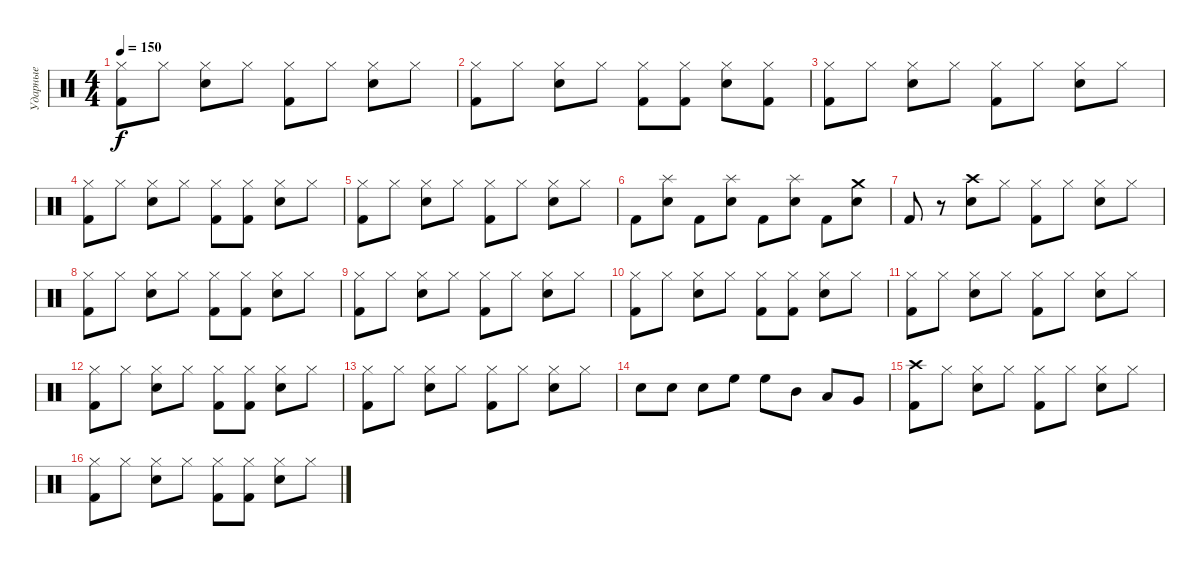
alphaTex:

\track ("Ударные" "Ударные") {instrument percussion}
\staff {score}
\articulation defaults
\ts (4 4)
\tempo 150
\clef neutral
\ks c
("Hi-Hat (closed)" "Kick (hit) 2").8{dy f} "Hi-Hat (closed)".8 ("Hi-Hat (closed)" "Snare (hit) 2").8 "Hi-Hat (closed)".8 ("Hi-Hat (closed)" "Kick (hit) 2").8 "Hi-Hat (closed)".8 ("Hi-Hat (closed)" "Snare (hit) 2").8 "Hi-Hat (closed)".8 |
("Hi-Hat (closed)" "Kick (hit) 2").8 "Hi-Hat (closed)".8 ("Hi-Hat (closed)" "Snare (hit) 2").8 "Hi-Hat (closed)".8 ("Hi-Hat (closed)" "Kick (hit) 2").8 ("Hi-Hat (closed)" "Kick (hit) 2").8 ("Hi-Hat (closed)" "Snare (hit) 2").8 ("Hi-Hat (closed)" "Kick (hit) 2").8 |
("Hi-Hat (closed)" "Kick (hit) 2").8 "Hi-Hat (closed)".8 ("Hi-Hat (closed)" "Snare (hit) 2").8 "Hi-Hat (closed)".8 ("Hi-Hat (closed)" "Kick (hit) 2").8 "Hi-Hat (closed)".8 ("Hi-Hat (closed)" "Snare (hit) 2").8 "Hi-Hat (closed)".8 |
("Hi-Hat (closed)" "Kick (hit) 2").8 "Hi-Hat (closed)".8 ("Hi-Hat (closed)" "Snare (hit) 2").8 "Hi-Hat (closed)".8 ("Hi-Hat (closed)" "Kick (hit) 2").8 ("Hi-Hat (closed)" "Kick (hit) 2").8 ("Hi-Hat (closed)" "Snare (hit) 2").8 "Hi-Hat (closed)".8 |
("Hi-Hat (closed)" "Kick (hit) 2").8 "Hi-Hat (closed)".8 ("Hi-Hat (closed)" "Snare (hit) 2").8 "Hi-Hat (closed)".8 ("Hi-Hat (closed)" "Kick (hit) 2").8 "Hi-Hat (closed)".8 ("Hi-Hat (closed)" "Snare (hit) 2").8 "Hi-Hat (closed)".8 |
"Kick (hit) 2".8 ("Splash (hit)" "Snare (hit) 2").8 "Kick (hit) 2".8 ("Splash (hit)" "Snare (hit) 2").8 "Kick (hit) 2".8 ("Splash (hit)" "Snare (hit) 2").8 "Kick (hit) 2".8 ("Crash medium (hit)" "Snare (hit) 2").8 |
"Kick (hit) 2".8 r.8 ("Crash high (hit)" "Snare (hit) 2").8 "Hi-Hat (closed)".8 ("Hi-Hat (closed)" "Kick (hit) 2").8 "Hi-Hat (closed)".8 ("Hi-Hat (closed)" "Snare (hit) 2").8 "Hi-Hat (closed)".8 |
("Hi-Hat (closed)" "Kick (hit) 2").8 "Hi-Hat (closed)".8 ("Hi-Hat (closed)" "Snare (hit) 2").8 "Hi-Hat (closed)".8 ("Hi-Hat (closed)" "Kick (hit) 2").8 ("Hi-Hat (closed)" "Kick (hit) 2").8 ("Hi-Hat (closed)" "Snare (hit) 2").8 "Hi-Hat (closed)".8 |
("Hi-Hat (closed)" "Kick (hit) 2").8 "Hi-Hat (closed)".8 ("Hi-Hat (closed)" "Snare (hit) 2").8 "Hi-Hat (closed)".8 ("Hi-Hat (closed)" "Kick (hit) 2").8 "Hi-Hat (closed)".8 ("Hi-Hat (closed)" "Snare (hit) 2").8 "Hi-Hat (closed)".8 |
("Hi-Hat (closed)" "Kick (hit) 2").8 "Hi-Hat (closed)".8 ("Hi-Hat (closed)" "Snare (hit) 2").8 "Hi-Hat (closed)".8 ("Hi-Hat (closed)" "Kick (hit) 2").8 ("Hi-Hat (closed)" "Kick (hit) 2").8 ("Hi-Hat (closed)" "Snare (hit) 2").8 "Hi-Hat (closed)".8 |
("Hi-Hat (closed)" "Kick (hit) 2").8 "Hi-Hat (closed)".8 ("Hi-Hat (closed)" "Snare (hit) 2").8 "Hi-Hat (closed)".8 ("Hi-Hat (closed)" "Kick (hit) 2").8 "Hi-Hat (closed)".8 ("Hi-Hat (closed)" "Snare (hit) 2").8 "Hi-Hat (closed)".8 |
("Hi-Hat (closed)" "Kick (hit) 2").8 "Hi-Hat (closed)".8 ("Hi-Hat (closed)" "Snare (hit) 2").8 "Hi-Hat (closed)".8 ("Hi-Hat (closed)" "Kick (hit) 2").8 ("Hi-Hat (closed)" "Kick (hit) 2").8 ("Hi-Hat (closed)" "Snare (hit) 2").8 "Hi-Hat (closed)".8 |
("Hi-Hat (closed)" "Kick (hit) 2").8 "Hi-Hat (closed)".8 ("Hi-Hat (closed)" "Snare (hit) 2").8 "Hi-Hat (closed)".8 ("Hi-Hat (closed)" "Kick (hit) 2").8 "Hi-Hat (closed)".8 ("Hi-Hat (closed)" "Snare (hit) 2").8 "Hi-Hat (closed)".8 |
"Snare (hit) 2".8 "Snare (hit) 2".8 "Snare (hit) 2".8 "High Floor Tom (hit)".8 "High Floor Tom (hit)".8 "Mid Tom (hit)".8 "Low Tom (hit)".8 "Very Low Tom (hit)".8 |
("Crash high (hit)" "Kick (hit) 2").8 "Hi-Hat (closed)".8 ("Hi-Hat (closed)" "Snare (hit) 2").8 "Hi-Hat (closed)".8 ("Hi-Hat (closed)" "Kick (hit) 2").8 "Hi-Hat (closed)".8 ("Hi-Hat (closed)" "Snare (hit) 2").8 "Hi-Hat (closed)".8 |
("Hi-Hat (closed)" "Kick (hit) 2").8 "Hi-Hat (closed)".8 ("Hi-Hat (closed)" "Snare (hit) 2").8 "Hi-Hat (closed)".8 ("Hi-Hat (closed)" "Kick (hit) 2").8 ("Hi-Hat (closed)" "Kick (hit) 2").8 ("Hi-Hat (closed)" "Snare (hit) 2").8 "Hi-Hat (closed)".8
